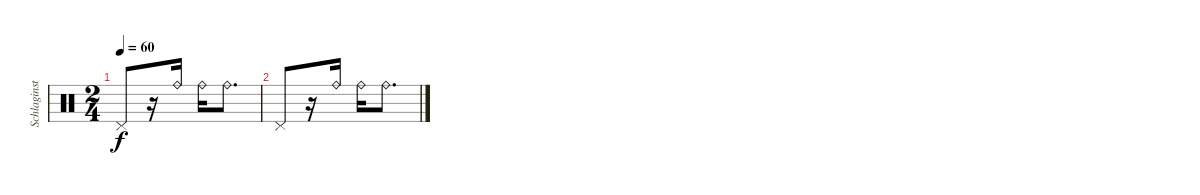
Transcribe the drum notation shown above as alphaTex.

\track ("Schlaginstrumente - Auswahl" "Schlaginst") {instrument percussion}
\staff {score}
\articulation defaults
\ts (2 4)
\tempo 60
\clef neutral
\ks c "Pedal Hi-Hat (hit)".8{dy f}
r.16 "Ride (bell)".16 "Ride (bell)".16 "Ride (bell)".8{d} |
"Pedal Hi-Hat (hit)".8 r.16 "Ride (bell)".16 "Ride (bell)".16 "Ride (bell)".8{d}
